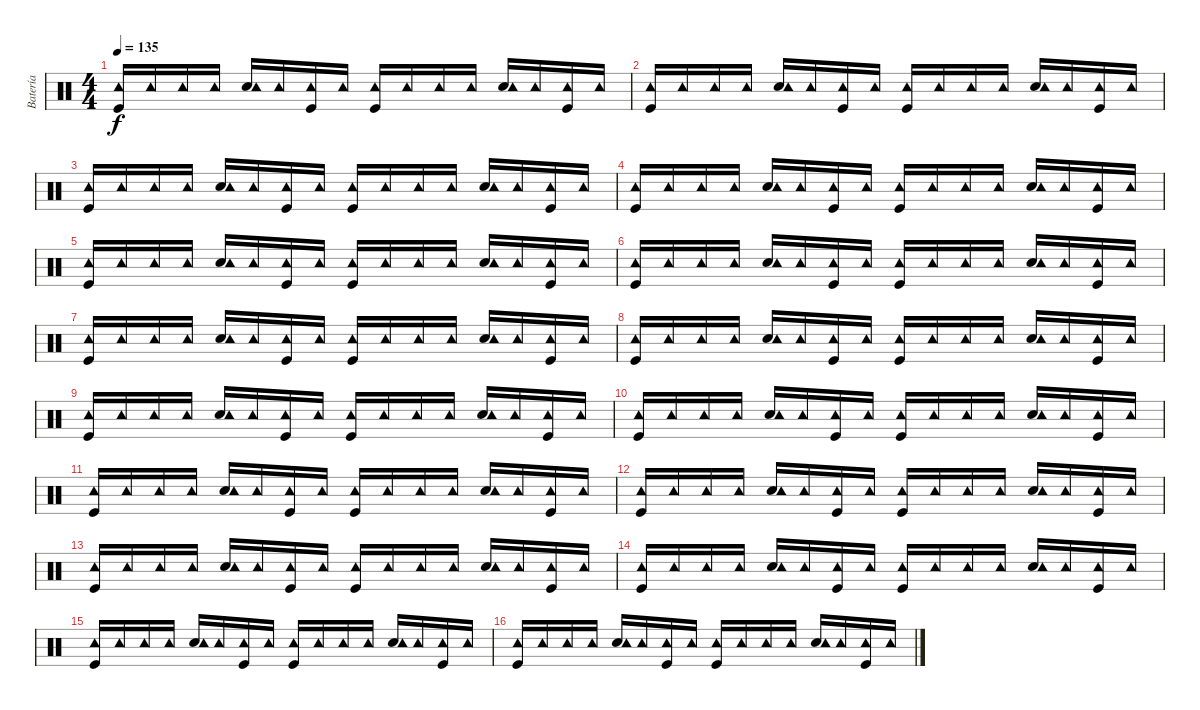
\track ("Batería" "Batería") {instrument percussion}
\staff {score}
\articulation defaults
\ts (4 4)
\tempo 135
\clef neutral
\ks c
("Kick (hit)" "Tambourine (hit)").16{dy f} "Tambourine (hit)".16 "Tambourine (hit)".16 "Tambourine (hit)".16 ("Snare (hit) 2" "Tambourine (hit)").16 "Tambourine (hit)".16 ("Kick (hit)" "Tambourine (hit)").16 "Tambourine (hit)".16 ("Kick (hit)" "Tambourine (hit)").16 "Tambourine (hit)".16 "Tambourine (hit)".16 "Tambourine (hit)".16 ("Snare (hit) 2" "Tambourine (hit)").16 "Tambourine (hit)".16 ("Kick (hit)" "Tambourine (hit)").16 "Tambourine (hit)".16 |
("Kick (hit)" "Tambourine (hit)").16 "Tambourine (hit)".16 "Tambourine (hit)".16 "Tambourine (hit)".16 ("Snare (hit) 2" "Tambourine (hit)").16 "Tambourine (hit)".16 ("Kick (hit)" "Tambourine (hit)").16 "Tambourine (hit)".16 ("Kick (hit)" "Tambourine (hit)").16 "Tambourine (hit)".16 "Tambourine (hit)".16 "Tambourine (hit)".16 ("Snare (hit) 2" "Tambourine (hit)").16 "Tambourine (hit)".16 ("Kick (hit)" "Tambourine (hit)").16 "Tambourine (hit)".16 |
("Kick (hit)" "Tambourine (hit)").16 "Tambourine (hit)".16 "Tambourine (hit)".16 "Tambourine (hit)".16 ("Snare (hit) 2" "Tambourine (hit)").16 "Tambourine (hit)".16 ("Kick (hit)" "Tambourine (hit)").16 "Tambourine (hit)".16 ("Kick (hit)" "Tambourine (hit)").16 "Tambourine (hit)".16 "Tambourine (hit)".16 "Tambourine (hit)".16 ("Snare (hit) 2" "Tambourine (hit)").16 "Tambourine (hit)".16 ("Kick (hit)" "Tambourine (hit)").16 "Tambourine (hit)".16 |
("Kick (hit)" "Tambourine (hit)").16 "Tambourine (hit)".16 "Tambourine (hit)".16 "Tambourine (hit)".16 ("Snare (hit) 2" "Tambourine (hit)").16 "Tambourine (hit)".16 ("Kick (hit)" "Tambourine (hit)").16 "Tambourine (hit)".16 ("Kick (hit)" "Tambourine (hit)").16 "Tambourine (hit)".16 "Tambourine (hit)".16 "Tambourine (hit)".16 ("Snare (hit) 2" "Tambourine (hit)").16 "Tambourine (hit)".16 ("Kick (hit)" "Tambourine (hit)").16 "Tambourine (hit)".16 |
("Kick (hit)" "Tambourine (hit)").16 "Tambourine (hit)".16 "Tambourine (hit)".16 "Tambourine (hit)".16 ("Snare (hit) 2" "Tambourine (hit)").16 "Tambourine (hit)".16 ("Kick (hit)" "Tambourine (hit)").16 "Tambourine (hit)".16 ("Kick (hit)" "Tambourine (hit)").16 "Tambourine (hit)".16 "Tambourine (hit)".16 "Tambourine (hit)".16 ("Snare (hit) 2" "Tambourine (hit)").16 "Tambourine (hit)".16 ("Kick (hit)" "Tambourine (hit)").16 "Tambourine (hit)".16 |
("Kick (hit)" "Tambourine (hit)").16 "Tambourine (hit)".16 "Tambourine (hit)".16 "Tambourine (hit)".16 ("Snare (hit) 2" "Tambourine (hit)").16 "Tambourine (hit)".16 ("Kick (hit)" "Tambourine (hit)").16 "Tambourine (hit)".16 ("Kick (hit)" "Tambourine (hit)").16 "Tambourine (hit)".16 "Tambourine (hit)".16 "Tambourine (hit)".16 ("Snare (hit) 2" "Tambourine (hit)").16 "Tambourine (hit)".16 ("Kick (hit)" "Tambourine (hit)").16 "Tambourine (hit)".16 |
("Kick (hit)" "Tambourine (hit)").16 "Tambourine (hit)".16 "Tambourine (hit)".16 "Tambourine (hit)".16 ("Snare (hit) 2" "Tambourine (hit)").16 "Tambourine (hit)".16 ("Kick (hit)" "Tambourine (hit)").16 "Tambourine (hit)".16 ("Kick (hit)" "Tambourine (hit)").16 "Tambourine (hit)".16 "Tambourine (hit)".16 "Tambourine (hit)".16 ("Snare (hit) 2" "Tambourine (hit)").16 "Tambourine (hit)".16 ("Kick (hit)" "Tambourine (hit)").16 "Tambourine (hit)".16 |
("Kick (hit)" "Tambourine (hit)").16 "Tambourine (hit)".16 "Tambourine (hit)".16 "Tambourine (hit)".16 ("Snare (hit) 2" "Tambourine (hit)").16 "Tambourine (hit)".16 ("Kick (hit)" "Tambourine (hit)").16 "Tambourine (hit)".16 ("Kick (hit)" "Tambourine (hit)").16 "Tambourine (hit)".16 "Tambourine (hit)".16 "Tambourine (hit)".16 ("Snare (hit) 2" "Tambourine (hit)").16 "Tambourine (hit)".16 ("Kick (hit)" "Tambourine (hit)").16 "Tambourine (hit)".16 |
("Kick (hit)" "Tambourine (hit)").16 "Tambourine (hit)".16 "Tambourine (hit)".16 "Tambourine (hit)".16 ("Snare (hit) 2" "Tambourine (hit)").16 "Tambourine (hit)".16 ("Kick (hit)" "Tambourine (hit)").16 "Tambourine (hit)".16 ("Kick (hit)" "Tambourine (hit)").16 "Tambourine (hit)".16 "Tambourine (hit)".16 "Tambourine (hit)".16 ("Snare (hit) 2" "Tambourine (hit)").16 "Tambourine (hit)".16 ("Kick (hit)" "Tambourine (hit)").16 "Tambourine (hit)".16 |
("Kick (hit)" "Tambourine (hit)").16 "Tambourine (hit)".16 "Tambourine (hit)".16 "Tambourine (hit)".16 ("Snare (hit) 2" "Tambourine (hit)").16 "Tambourine (hit)".16 ("Kick (hit)" "Tambourine (hit)").16 "Tambourine (hit)".16 ("Kick (hit)" "Tambourine (hit)").16 "Tambourine (hit)".16 "Tambourine (hit)".16 "Tambourine (hit)".16 ("Snare (hit) 2" "Tambourine (hit)").16 "Tambourine (hit)".16 ("Kick (hit)" "Tambourine (hit)").16 "Tambourine (hit)".16 |
("Kick (hit)" "Tambourine (hit)").16 "Tambourine (hit)".16 "Tambourine (hit)".16 "Tambourine (hit)".16 ("Snare (hit) 2" "Tambourine (hit)").16 "Tambourine (hit)".16 ("Kick (hit)" "Tambourine (hit)").16 "Tambourine (hit)".16 ("Kick (hit)" "Tambourine (hit)").16 "Tambourine (hit)".16 "Tambourine (hit)".16 "Tambourine (hit)".16 ("Snare (hit) 2" "Tambourine (hit)").16 "Tambourine (hit)".16 ("Kick (hit)" "Tambourine (hit)").16 "Tambourine (hit)".16 |
("Kick (hit)" "Tambourine (hit)").16 "Tambourine (hit)".16 "Tambourine (hit)".16 "Tambourine (hit)".16 ("Snare (hit) 2" "Tambourine (hit)").16 "Tambourine (hit)".16 ("Kick (hit)" "Tambourine (hit)").16 "Tambourine (hit)".16 ("Kick (hit)" "Tambourine (hit)").16 "Tambourine (hit)".16 "Tambourine (hit)".16 "Tambourine (hit)".16 ("Snare (hit) 2" "Tambourine (hit)").16 "Tambourine (hit)".16 ("Kick (hit)" "Tambourine (hit)").16 "Tambourine (hit)".16 |
("Kick (hit)" "Tambourine (hit)").16 "Tambourine (hit)".16 "Tambourine (hit)".16 "Tambourine (hit)".16 ("Snare (hit) 2" "Tambourine (hit)").16 "Tambourine (hit)".16 ("Kick (hit)" "Tambourine (hit)").16 "Tambourine (hit)".16 ("Kick (hit)" "Tambourine (hit)").16 "Tambourine (hit)".16 "Tambourine (hit)".16 "Tambourine (hit)".16 ("Snare (hit) 2" "Tambourine (hit)").16 "Tambourine (hit)".16 ("Kick (hit)" "Tambourine (hit)").16 "Tambourine (hit)".16 |
("Kick (hit)" "Tambourine (hit)").16 "Tambourine (hit)".16 "Tambourine (hit)".16 "Tambourine (hit)".16 ("Snare (hit) 2" "Tambourine (hit)").16 "Tambourine (hit)".16 ("Kick (hit)" "Tambourine (hit)").16 "Tambourine (hit)".16 ("Kick (hit)" "Tambourine (hit)").16 "Tambourine (hit)".16 "Tambourine (hit)".16 "Tambourine (hit)".16 ("Snare (hit) 2" "Tambourine (hit)").16 "Tambourine (hit)".16 ("Kick (hit)" "Tambourine (hit)").16 "Tambourine (hit)".16 |
("Kick (hit)" "Tambourine (hit)").16 "Tambourine (hit)".16 "Tambourine (hit)".16 "Tambourine (hit)".16 ("Snare (hit) 2" "Tambourine (hit)").16 "Tambourine (hit)".16 ("Kick (hit)" "Tambourine (hit)").16 "Tambourine (hit)".16 ("Kick (hit)" "Tambourine (hit)").16 "Tambourine (hit)".16 "Tambourine (hit)".16 "Tambourine (hit)".16 ("Snare (hit) 2" "Tambourine (hit)").16 "Tambourine (hit)".16 ("Kick (hit)" "Tambourine (hit)").16 "Tambourine (hit)".16 |
("Kick (hit)" "Tambourine (hit)").16 "Tambourine (hit)".16 "Tambourine (hit)".16 "Tambourine (hit)".16 ("Snare (hit) 2" "Tambourine (hit)").16 "Tambourine (hit)".16 ("Kick (hit)" "Tambourine (hit)").16 "Tambourine (hit)".16 ("Kick (hit)" "Tambourine (hit)").16 "Tambourine (hit)".16 "Tambourine (hit)".16 "Tambourine (hit)".16 ("Snare (hit) 2" "Tambourine (hit)").16 "Tambourine (hit)".16 ("Kick (hit)" "Tambourine (hit)").16 "Tambourine (hit)".16
